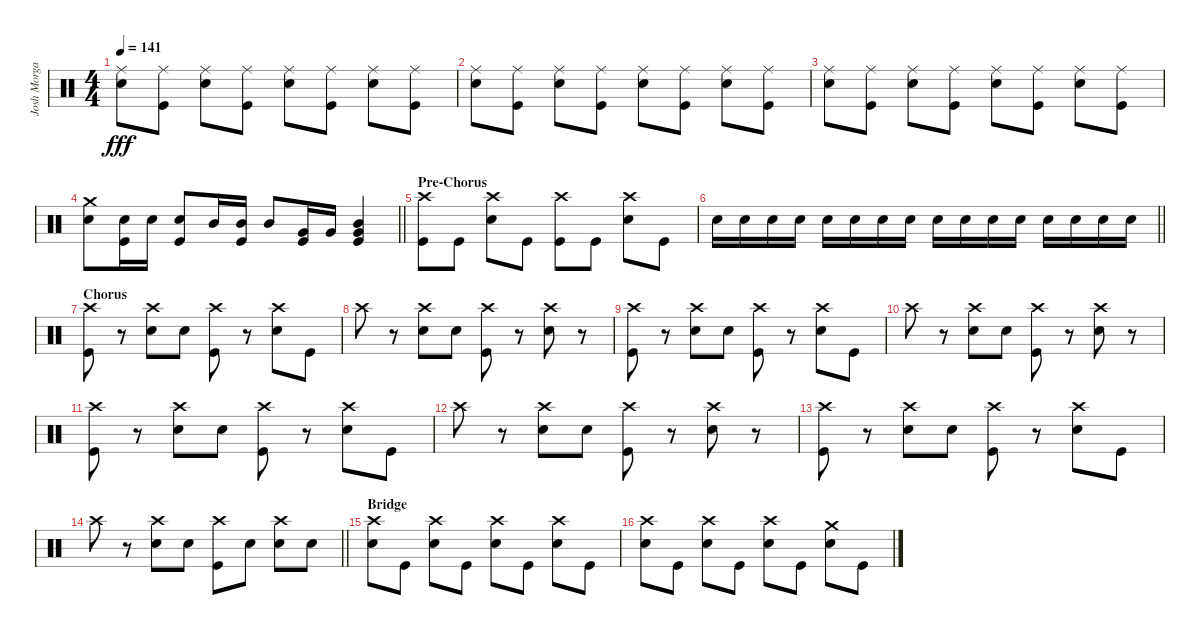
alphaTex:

\track ("Josh Morgan" "Josh Morga") {instrument percussion}
\staff {score}
\articulation defaults
\ts (4 4)
\tempo 141
\clef neutral
\ks c
("Ride (middle)" "Electric Snare (hit)").8{dy fff} ("Ride (middle)" "Kick (hit)").8 ("Ride (middle)" "Electric Snare (hit)").8 ("Ride (middle)" "Kick (hit)").8 ("Ride (middle)" "Electric Snare (hit)").8 ("Ride (middle)" "Kick (hit)").8 ("Ride (middle)" "Electric Snare (hit)").8 ("Ride (middle)" "Kick (hit)").8 |
("Ride (middle)" "Electric Snare (hit)").8 ("Ride (middle)" "Kick (hit)").8 ("Ride (middle)" "Electric Snare (hit)").8 ("Ride (middle)" "Kick (hit)").8 ("Ride (middle)" "Electric Snare (hit)").8 ("Ride (middle)" "Kick (hit)").8 ("Ride (middle)" "Electric Snare (hit)").8 ("Ride (middle)" "Kick (hit)").8 |
("Ride (middle)" "Electric Snare (hit)").8 ("Ride (middle)" "Kick (hit)").8 ("Ride (middle)" "Electric Snare (hit)").8 ("Ride (middle)" "Kick (hit)").8 ("Ride (middle)" "Electric Snare (hit)").8 ("Ride (middle)" "Kick (hit)").8 ("Ride (middle)" "Electric Snare (hit)").8 ("Ride (middle)" "Kick (hit)").8 |
\barLineRight lightlight
("Crash medium (hit)" "Electric Snare (hit)").8 ("Electric Snare (hit)" "Kick (hit)").16 "Electric Snare (hit)".16 ("Electric Snare (hit)" "Kick (hit)").8 "Mid Tom (hit)".16 ("Mid Tom (hit)" "Kick (hit)").16 "Mid Tom (hit)".8 ("Very Low Tom (hit)" "Kick (hit)").16 "Very Low Tom (hit)".16 ("Mid Tom (hit)" "Very Low Tom (hit)" "Kick (hit)").4 |
\section ("" "Pre-Chorus")
("Crash high (hit)" "Kick (hit)").8 "Kick (hit)".8 ("Crash high (hit)" "Electric Snare (hit)").8 "Kick (hit)".8 ("Crash high (hit)" "Kick (hit)").8 "Kick (hit)".8 ("Crash high (hit)" "Electric Snare (hit)").8 "Kick (hit)".8 |
\barLineRight lightlight "Electric Snare (hit)".16 "Electric Snare (hit)".16 "Electric Snare (hit)".16 "Electric Snare (hit)".16 "Electric Snare (hit)".16 "Electric Snare (hit)".16 "Electric Snare (hit)".16 "Electric Snare (hit)".16 "Electric Snare (hit)".16 "Electric Snare (hit)".16 "Electric Snare (hit)".16 "Electric Snare (hit)".16 "Electric Snare (hit)".16 "Electric Snare (hit)".16 "Electric Snare (hit)".16 "Electric Snare (hit)".16
|
\section ("" "Chorus")
("Crash high (hit)" "Kick (hit)").8 r.8 ("Crash high (hit)" "Electric Snare (hit)").8 "Electric Snare (hit)".8 ("Crash high (hit)" "Kick (hit)").8 r.8 ("Crash high (hit)" "Electric Snare (hit)").8 "Kick (hit)".8 |
"Crash high (hit)".8 r.8 ("Crash high (hit)" "Electric Snare (hit)").8 "Electric Snare (hit)".8 ("Crash high (hit)" "Kick (hit)").8 r.8 ("Crash high (hit)" "Electric Snare (hit)").8 r.8 |
("Crash high (hit)" "Kick (hit)").8 r.8 ("Crash high (hit)" "Electric Snare (hit)").8 "Electric Snare (hit)".8 ("Crash high (hit)" "Kick (hit)").8 r.8 ("Crash high (hit)" "Electric Snare (hit)").8 "Kick (hit)".8 |
"Crash high (hit)".8 r.8 ("Crash high (hit)" "Electric Snare (hit)").8 "Electric Snare (hit)".8 ("Crash high (hit)" "Kick (hit)").8 r.8 ("Crash high (hit)" "Electric Snare (hit)").8 r.8 |
("Crash high (hit)" "Kick (hit)").8 r.8 ("Crash high (hit)" "Electric Snare (hit)").8 "Electric Snare (hit)".8 ("Crash high (hit)" "Kick (hit)").8 r.8 ("Crash high (hit)" "Electric Snare (hit)").8 "Kick (hit)".8 |
"Crash high (hit)".8 r.8 ("Crash high (hit)" "Electric Snare (hit)").8 "Electric Snare (hit)".8 ("Crash high (hit)" "Kick (hit)").8 r.8 ("Crash high (hit)" "Electric Snare (hit)").8 r.8 |
("Crash high (hit)" "Kick (hit)").8 r.8 ("Crash high (hit)" "Electric Snare (hit)").8 "Electric Snare (hit)".8 ("Crash high (hit)" "Kick (hit)").8 r.8 ("Crash high (hit)" "Electric Snare (hit)").8 "Kick (hit)".8 |
\barLineRight lightlight "Crash high (hit)".8
r.8 ("Crash high (hit)" "Electric Snare (hit)").8 "Electric Snare (hit)".8 ("Crash high (hit)" "Kick (hit)").8 "Electric Snare (hit)".8 ("Crash high (hit)" "Electric Snare (hit)").8 "Electric Snare (hit)".8 |
\section ("" "Bridge")
("Crash high (hit)" "Electric Snare (hit)").8 "Kick (hit)".8 ("Crash high (hit)" "Electric Snare (hit)").8 "Kick (hit)".8 ("Crash high (hit)" "Electric Snare (hit)").8 "Kick (hit)".8 ("Crash high (hit)" "Electric Snare (hit)").8 "Kick (hit)".8 |
("Crash high (hit)" "Electric Snare (hit)").8 "Kick (hit)".8 ("Crash high (hit)" "Electric Snare (hit)").8 "Kick (hit)".8 ("Crash high (hit)" "Electric Snare (hit)").8 "Kick (hit)".8 ("Crash medium (hit)" "Electric Snare (hit)").8 "Kick (hit)".8
